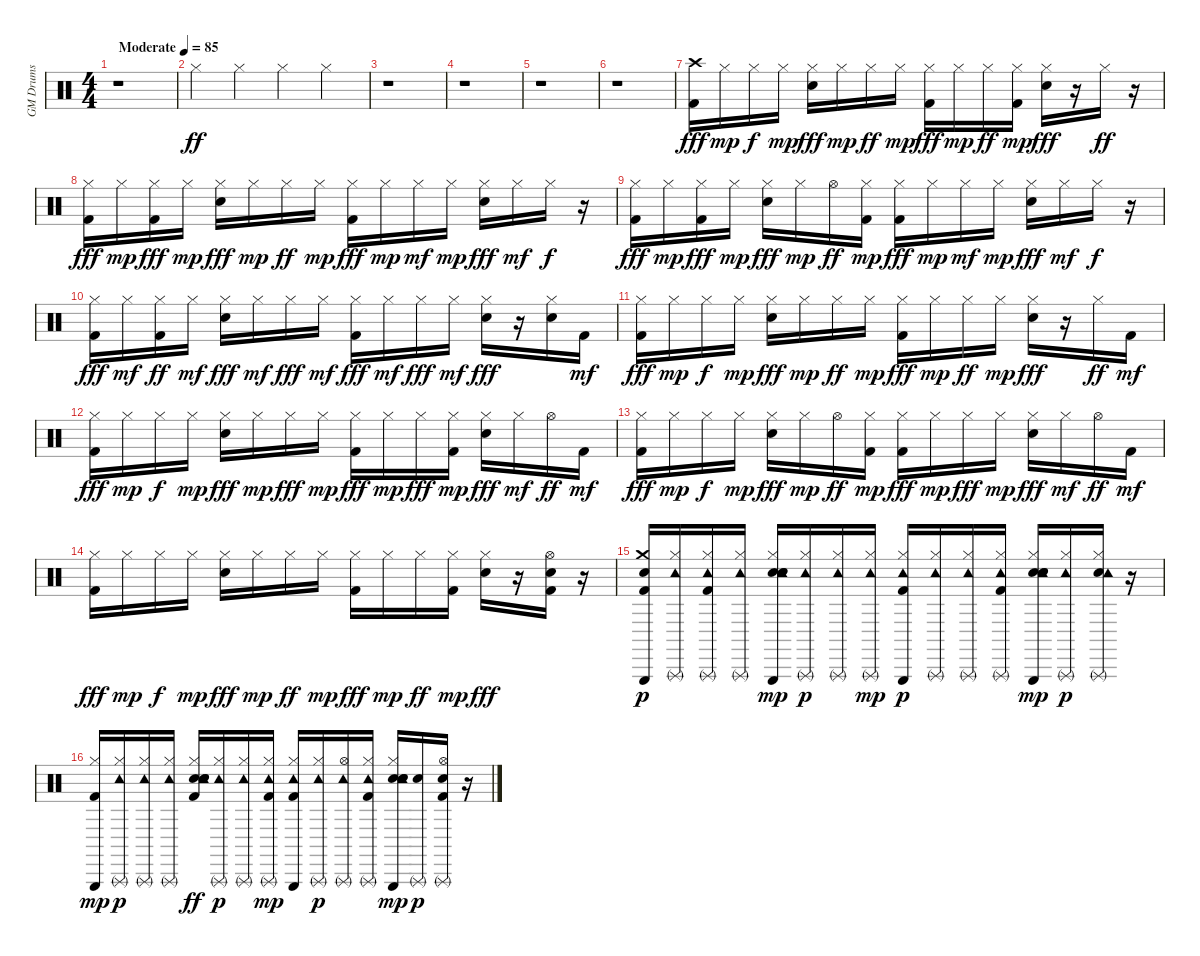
\track ("GM Drums" "GM Drums") {instrument percussion}
\staff {score}
\articulation defaults
\ts (4 4)
\tempo (85 "Moderate")
\clef neutral
\ks c
r.1{dy ff} |
"Hi-Hat (closed)".4 "Hi-Hat (closed)".4 "Hi-Hat (closed)".4 "Hi-Hat (closed)".4 |
r.1 |
r.1 |
r.1 |
r.1 |
("Kick (hit) 2" "Crash high (hit)").16{dy fff} "Hi-Hat (closed)".16{dy mp} "Hi-Hat (closed)".16{dy f} "Hi-Hat (closed)".16{dy mp} ("Electric Snare (hit)" "Hi-Hat (closed)").16{dy fff} "Hi-Hat (closed)".16{dy mp} "Hi-Hat (closed)".16{dy ff} "Hi-Hat (closed)".16{dy mp} ("Kick (hit) 2" "Hi-Hat (closed)").16{dy fff} "Hi-Hat (closed)".16{dy mp} "Hi-Hat (closed)".16{dy ff} ("Kick (hit) 2" "Hi-Hat (closed)").16{dy mp} ("Electric Snare (hit)" "Hi-Hat (closed)").16{dy fff} r.16 "Hi-Hat (closed)".16{dy ff} r.16 |
("Kick (hit) 2" "Hi-Hat (closed)").16{dy fff} "Hi-Hat (closed)".16{dy mp} ("Kick (hit) 2" "Hi-Hat (closed)").16{dy fff} "Hi-Hat (closed)".16{dy mp} ("Electric Snare (hit)" "Hi-Hat (closed)").16{dy fff} "Hi-Hat (closed)".16{dy mp} "Hi-Hat (closed)".16{dy ff} "Hi-Hat (closed)".16{dy mp} ("Kick (hit) 2" "Hi-Hat (closed)").16{dy fff} "Hi-Hat (closed)".16{dy mp} "Hi-Hat (closed)".16{dy mf} "Hi-Hat (closed)".16{dy mp} ("Electric Snare (hit)" "Hi-Hat (closed)").16{dy fff} "Hi-Hat (closed)".16{dy mf} "Hi-Hat (closed)".16{dy f} r.16 |
("Kick (hit) 2" "Hi-Hat (closed)").16{dy fff} "Hi-Hat (closed)".16{dy mp} ("Kick (hit) 2" "Hi-Hat (closed)").16{dy fff} "Hi-Hat (closed)".16{dy mp} ("Electric Snare (hit)" "Hi-Hat (closed)").16{dy fff} "Hi-Hat (closed)".16{dy mp} "Hi-Hat (open)".16{dy ff} ("Kick (hit) 2" "Hi-Hat (closed)").16{dy mp} ("Kick (hit) 2" "Hi-Hat (closed)").16{dy fff} "Hi-Hat (closed)".16{dy mp} "Hi-Hat (closed)".16{dy mf} "Hi-Hat (closed)".16{dy mp} ("Electric Snare (hit)" "Hi-Hat (closed)").16{dy fff} "Hi-Hat (closed)".16{dy mf} "Hi-Hat (closed)".16{dy f} r.16 |
("Kick (hit) 2" "Hi-Hat (closed)").16{dy fff} "Hi-Hat (closed)".16{dy mf} ("Kick (hit) 2" "Hi-Hat (closed)").16{dy ff} "Hi-Hat (closed)".16{dy mf} ("Electric Snare (hit)" "Hi-Hat (closed)").16{dy fff} "Hi-Hat (closed)".16{dy mf} "Hi-Hat (closed)".16{dy fff} "Hi-Hat (closed)".16{dy mf} ("Kick (hit) 2" "Hi-Hat (closed)").16{dy fff} "Hi-Hat (closed)".16{dy mf} "Hi-Hat (closed)".16{dy fff} "Hi-Hat (closed)".16{dy mf} ("Electric Snare (hit)" "Hi-Hat (closed)").16{dy fff} r.16 ("Electric Snare (hit)" "Hi-Hat (closed)").16 "Kick (hit) 2".16{dy mf} |
("Kick (hit) 2" "Hi-Hat (closed)").16{dy fff} "Hi-Hat (closed)".16{dy mp} "Hi-Hat (closed)".16{dy f} "Hi-Hat (closed)".16{dy mp} ("Electric Snare (hit)" "Hi-Hat (closed)").16{dy fff} "Hi-Hat (closed)".16{dy mp} "Hi-Hat (closed)".16{dy ff} "Hi-Hat (closed)".16{dy mp} ("Kick (hit) 2" "Hi-Hat (closed)").16{dy fff} "Hi-Hat (closed)".16{dy mp} "Hi-Hat (closed)".16{dy ff} "Hi-Hat (closed)".16{dy mp} ("Electric Snare (hit)" "Hi-Hat (closed)").16{dy fff} r.16 "Hi-Hat (closed)".16{dy ff} "Kick (hit) 2".16{dy mf} |
("Kick (hit) 2" "Hi-Hat (closed)").16{dy fff} "Hi-Hat (closed)".16{dy mp} "Hi-Hat (closed)".16{dy f} "Hi-Hat (closed)".16{dy mp} ("Electric Snare (hit)" "Hi-Hat (closed)").16{dy fff} "Hi-Hat (closed)".16{dy mp} "Hi-Hat (closed)".16{dy fff} "Hi-Hat (closed)".16{dy mp} ("Kick (hit) 2" "Hi-Hat (closed)").16{dy fff} "Hi-Hat (closed)".16{dy mp} "Hi-Hat (closed)".16{dy fff} ("Kick (hit) 2" "Hi-Hat (closed)").16{dy mp} ("Electric Snare (hit)" "Hi-Hat (closed)").16{dy fff} "Hi-Hat (closed)".16{dy mf} "Hi-Hat (open)".16{dy ff} "Kick (hit) 2".16{dy mf} |
("Kick (hit) 2" "Hi-Hat (closed)").16{dy fff} "Hi-Hat (closed)".16{dy mp} "Hi-Hat (closed)".16{dy f} "Hi-Hat (closed)".16{dy mp} ("Electric Snare (hit)" "Hi-Hat (closed)").16{dy fff} "Hi-Hat (closed)".16{dy mp} "Hi-Hat (open)".16{dy ff} ("Kick (hit) 2" "Hi-Hat (closed)").16{dy mp} ("Kick (hit) 2" "Hi-Hat (closed)").16{dy fff} "Hi-Hat (closed)".16{dy mp} "Hi-Hat (closed)".16{dy fff} "Hi-Hat (closed)".16{dy mp} ("Electric Snare (hit)" "Hi-Hat (closed)").16{dy fff} "Hi-Hat (closed)".16{dy mf} "Hi-Hat (open)".16{dy ff} "Kick (hit) 2".16{dy mf} |
("Kick (hit) 2" "Hi-Hat (closed)").16{dy fff} "Hi-Hat (closed)".16{dy mp} "Hi-Hat (closed)".16{dy f} "Hi-Hat (closed)".16{dy mp} ("Electric Snare (hit)" "Hi-Hat (closed)").16{dy fff} "Hi-Hat (closed)".16{dy mp} "Hi-Hat (closed)".16{dy ff} "Hi-Hat (closed)".16{dy mp} ("Kick (hit) 2" "Hi-Hat (closed)").16{dy fff} "Hi-Hat (closed)".16{dy mp} "Hi-Hat (closed)".16{dy ff} ("Kick (hit) 2" "Hi-Hat (closed)").16{dy mp} ("Electric Snare (hit)" "Hi-Hat (closed)").16{dy fff} r.16 ("Kick (hit) 2" "Snare (hit) 2" "Hi-Hat (open)").16 r.16 |
("Kick (hit) 2" "Snare (hit) 2" "Crash medium (hit)" "Triangle (hit)").16{dy p} ("Hi-Hat (closed)" "Tambourine (hit)" "Triangle (rnute)").16 ("Kick (hit) 2" "Hi-Hat (closed)" "Tambourine (hit)" "Triangle (rnute)").16 ("Hi-Hat (closed)" "Tambourine (hit)" "Triangle (rnute)").16 ("Snare (hit) 2" "Hand Clap (hit)" "Electric Snare (hit)" "Hi-Hat (closed)" "Tambourine (hit)" "Triangle (hit)").16{dy mp} ("Hi-Hat (closed)" "Tambourine (hit)" "Triangle (rnute)").16{dy p} ("Hi-Hat (closed)" "Tambourine (hit)" "Triangle (rnute)").16 ("Hi-Hat (closed)" "Tambourine (hit)" "Triangle (rnute)").16{dy mp} ("Kick (hit) 2" "Hi-Hat (closed)" "Tambourine (hit)" "Triangle (hit)").16{dy p} ("Hi-Hat (closed)" "Tambourine (hit)" "Triangle (rnute)").16 ("Hi-Hat (closed)" "Tambourine (hit)" "Triangle (rnute)").16 ("Kick (hit) 2" "Hi-Hat (closed)" "Tambourine (hit)" "Triangle (rnute)").16 ("Snare (hit) 2" "Hand Clap (hit)" "Electric Snare (hit)" "Hi-Hat (closed)" "Tambourine (hit)" "Triangle (hit)").16{dy mp} ("Hi-Hat (closed)" "Tambourine (hit)" "Triangle (rnute)").16{dy p} ("Snare (hit) 2" "Hi-Hat (closed)" "Tambourine (hit)" "Triangle (rnute)").16 r.16 |
("Kick (hit) 2" "Hi-Hat (closed)" "Triangle (hit)").16{dy mp} ("Hi-Hat (closed)" "Tambourine (hit)" "Triangle (rnute)").16{dy p} ("Hi-Hat (closed)" "Tambourine (hit)" "Triangle (rnute)").16 ("Hi-Hat (closed)" "Tambourine (hit)" "Triangle (rnute)").16 ("Kick (hit) 2" "Snare (hit) 2" "Hand Clap (hit)" "Electric Snare (hit)" "Hi-Hat (closed)" "Tambourine (hit)").16{dy ff} ("Hi-Hat (closed)" "Tambourine (hit)" "Triangle (rnute)").16{dy p} ("Hi-Hat (closed)" "Tambourine (hit)" "Triangle (rnute)").16 ("Kick (hit) 2" "Hi-Hat (closed)" "Tambourine (hit)" "Triangle (rnute)").16{dy mp} ("Kick (hit) 2" "Hi-Hat (closed)" "Tambourine (hit)" "Triangle (hit)").16 ("Hi-Hat (closed)" "Tambourine (hit)" "Triangle (rnute)").16{dy p} ("Hi-Hat (open)" "Tambourine (hit)" "Triangle (rnute)").16 ("Kick (hit) 2" "Hi-Hat (closed)" "Tambourine (hit)" "Triangle (rnute)").16 ("Snare (hit) 2" "Hand Clap (hit)" "Electric Snare (hit)" "Hi-Hat (closed)" "Tambourine (hit)" "Triangle (hit)").16{dy mp} ("Snare (hit) 2" "Triangle (rnute)").16{dy p} ("Kick (hit) 2" "Snare (hit) 2" "Hi-Hat (open)" "Triangle (rnute)").16 r.16
